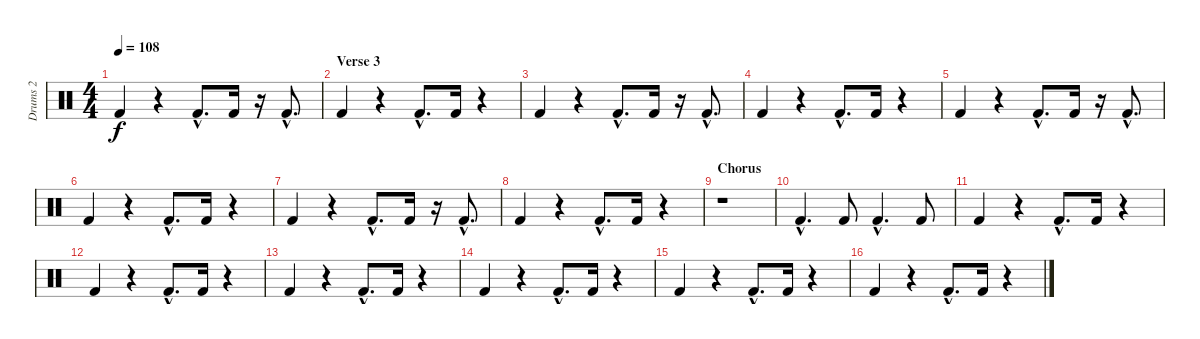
\track ("Drums 2" "Drums 2") {instrument percussion}
\staff {score}
\articulation defaults
\ts (4 4)
\tempo 108
\clef neutral
\ks c "Kick (hit) 2".4{dy f}
r.4 "Kick (hit) 2"{hac}.8{d} "Kick (hit) 2".16 r.16 "Kick (hit) 2"{hac}.8{d} |
\section ("" "Verse 3")
"Kick (hit) 2".4 r.4 "Kick (hit) 2"{hac}.8{d} "Kick (hit) 2".16 r.4 |
"Kick (hit) 2".4 r.4 "Kick (hit) 2"{hac}.8{d} "Kick (hit) 2".16 r.16 "Kick (hit) 2"{hac}.8{d} |
"Kick (hit) 2".4 r.4 "Kick (hit) 2"{hac}.8{d} "Kick (hit) 2".16 r.4 |
"Kick (hit) 2".4 r.4 "Kick (hit) 2"{hac}.8{d} "Kick (hit) 2".16 r.16 "Kick (hit) 2"{hac}.8{d} |
"Kick (hit) 2".4 r.4 "Kick (hit) 2"{hac}.8{d} "Kick (hit) 2".16 r.4 |
"Kick (hit) 2".4 r.4 "Kick (hit) 2"{hac}.8{d} "Kick (hit) 2".16 r.16 "Kick (hit) 2"{hac}.8{d} |
"Kick (hit) 2".4 r.4 "Kick (hit) 2"{hac}.8{d} "Kick (hit) 2".16 r.4 |
\section ("" "Chorus")
r.1 |
"Kick (hit) 2"{hac}.4{d} "Kick (hit) 2".8 "Kick (hit) 2"{hac}.4{d} "Kick (hit) 2".8 |
"Kick (hit) 2".4 r.4 "Kick (hit) 2"{hac}.8{d} "Kick (hit) 2".16 r.4 |
"Kick (hit) 2".4 r.4 "Kick (hit) 2"{hac}.8{d} "Kick (hit) 2".16 r.4 |
"Kick (hit) 2".4 r.4 "Kick (hit) 2"{hac}.8{d} "Kick (hit) 2".16 r.4 |
"Kick (hit) 2".4 r.4 "Kick (hit) 2"{hac}.8{d} "Kick (hit) 2".16 r.4 |
"Kick (hit) 2".4 r.4 "Kick (hit) 2"{hac}.8{d} "Kick (hit) 2".16 r.4 |
"Kick (hit) 2".4 r.4 "Kick (hit) 2"{hac}.8{d} "Kick (hit) 2".16 r.4
